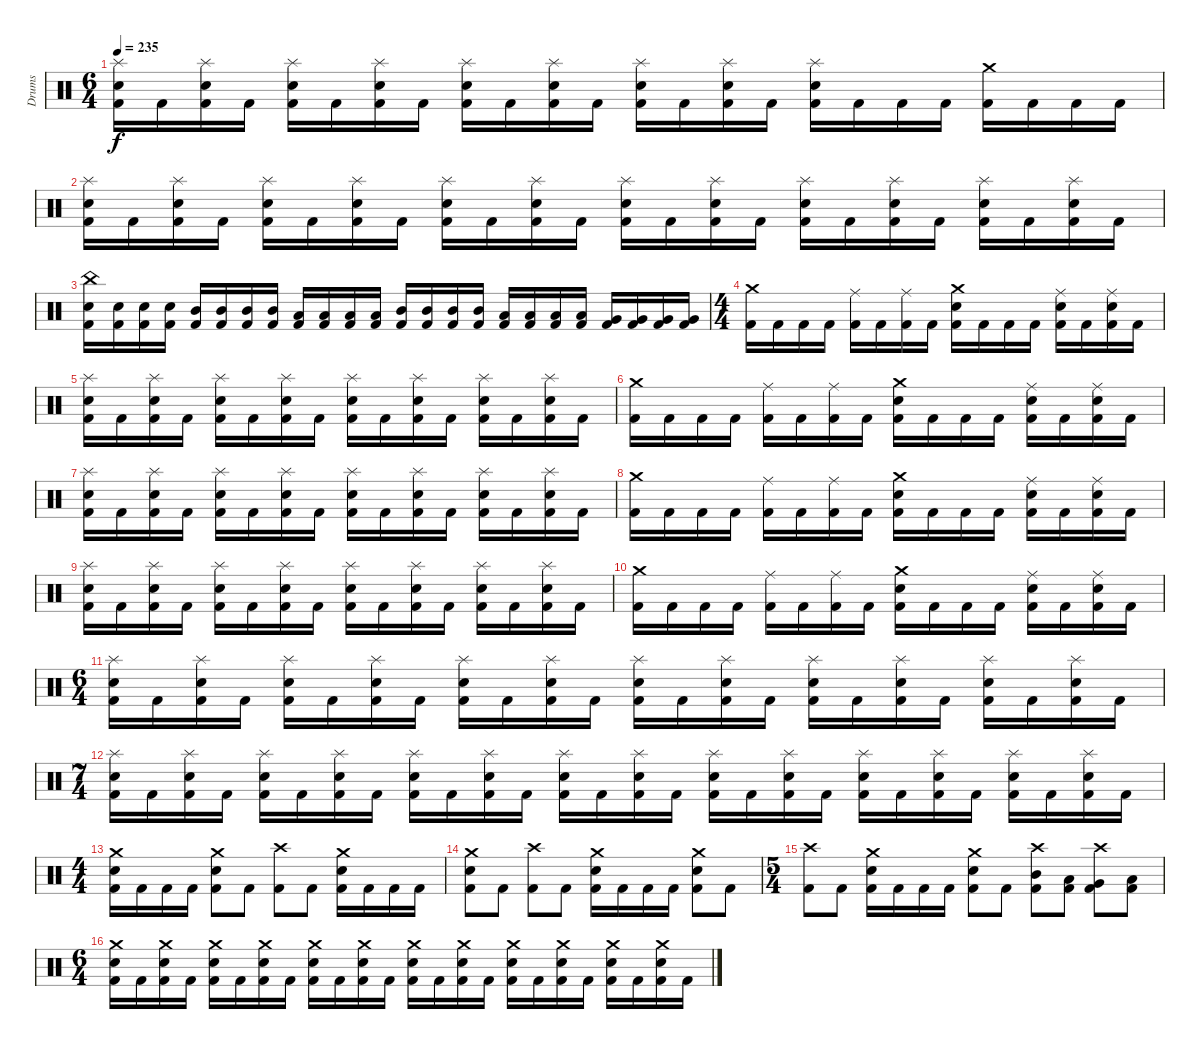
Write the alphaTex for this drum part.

\track ("Drums" "Drums") {instrument percussion}
\staff {score}
\articulation defaults
\ts (6 4)
\tempo 235
\clef neutral
\ks c
("Splash (hit)" "Electric Snare (hit)" "Kick (hit) 2").16{dy f} "Kick (hit) 2".16 ("Splash (hit)" "Electric Snare (hit)" "Kick (hit) 2").16 "Kick (hit) 2".16 ("Splash (hit)" "Electric Snare (hit)" "Kick (hit) 2").16 "Kick (hit) 2".16 ("Splash (hit)" "Electric Snare (hit)" "Kick (hit) 2").16 "Kick (hit) 2".16 ("Splash (hit)" "Electric Snare (hit)" "Kick (hit) 2").16 "Kick (hit) 2".16 ("Splash (hit)" "Electric Snare (hit)" "Kick (hit) 2").16 "Kick (hit) 2".16 ("Splash (hit)" "Electric Snare (hit)" "Kick (hit) 2").16 "Kick (hit) 2".16 ("Splash (hit)" "Electric Snare (hit)" "Kick (hit) 2").16 "Kick (hit) 2".16 ("Splash (hit)" "Electric Snare (hit)" "Kick (hit) 2").16 "Kick (hit) 2".16 "Kick (hit) 2".16 "Kick (hit) 2".16 ("Crash medium (hit)" "Kick (hit) 2").16 "Kick (hit) 2".16 "Kick (hit) 2".16 "Kick (hit) 2".16 |
("Splash (hit)" "Electric Snare (hit)" "Kick (hit) 2").16 "Kick (hit) 2".16 ("Splash (hit)" "Electric Snare (hit)" "Kick (hit) 2").16 "Kick (hit) 2".16 ("Splash (hit)" "Electric Snare (hit)" "Kick (hit) 2").16 "Kick (hit) 2".16 ("Splash (hit)" "Electric Snare (hit)" "Kick (hit) 2").16 "Kick (hit) 2".16 ("Splash (hit)" "Electric Snare (hit)" "Kick (hit) 2").16 "Kick (hit) 2".16 ("Splash (hit)" "Electric Snare (hit)" "Kick (hit) 2").16 "Kick (hit) 2".16 ("Splash (hit)" "Electric Snare (hit)" "Kick (hit) 2").16 "Kick (hit) 2".16 ("Splash (hit)" "Electric Snare (hit)" "Kick (hit) 2").16 "Kick (hit) 2".16 ("Splash (hit)" "Electric Snare (hit)" "Kick (hit) 2").16 "Kick (hit) 2".16 ("Splash (hit)" "Electric Snare (hit)" "Kick (hit) 2").16 "Kick (hit) 2".16 ("Splash (hit)" "Electric Snare (hit)" "Kick (hit) 2").16 "Kick (hit) 2".16 ("Splash (hit)" "Electric Snare (hit)" "Kick (hit) 2").16 "Kick (hit) 2".16 |
("China (hit)" "Electric Snare (hit)" "Kick (hit) 2").16 ("Electric Snare (hit)" "Kick (hit) 2").16 ("Electric Snare (hit)" "Kick (hit) 2").16 ("Electric Snare (hit)" "Kick (hit) 2").16 ("Mid Tom (hit)" "Kick (hit) 2").16 ("Mid Tom (hit)" "Kick (hit) 2").16 ("Mid Tom (hit)" "Kick (hit) 2").16 ("Mid Tom (hit)" "Kick (hit) 2").16 ("Low Tom (hit)" "Kick (hit) 2").16 ("Low Tom (hit)" "Kick (hit) 2").16 ("Low Tom (hit)" "Kick (hit) 2").16 ("Low Tom (hit)" "Kick (hit) 2").16 ("Mid Tom (hit)" "Kick (hit) 2").16 ("Mid Tom (hit)" "Kick (hit) 2").16 ("Mid Tom (hit)" "Kick (hit) 2").16 ("Mid Tom (hit)" "Kick (hit) 2").16 ("Low Tom (hit)" "Kick (hit) 2").16 ("Low Tom (hit)" "Kick (hit) 2").16 ("Low Tom (hit)" "Kick (hit) 2").16 ("Low Tom (hit)" "Kick (hit) 2").16 ("Very Low Tom (hit)" "Kick (hit) 2").16 ("Very Low Tom (hit)" "Kick (hit) 2").16 ("Very Low Tom (hit)" "Kick (hit) 2").16 ("Very Low Tom (hit)" "Kick (hit) 2").16 |
\ts (4 4)
("Crash medium (hit)" "Kick (hit) 2").16 "Kick (hit) 2".16 "Kick (hit) 2".16 "Kick (hit) 2".16 ("Ride (middle)" "Kick (hit) 2").16 "Kick (hit) 2".16 ("Ride (middle)" "Kick (hit) 2").16 "Kick (hit) 2".16 ("Crash medium (hit)" "Electric Snare (hit)" "Kick (hit) 2").16 "Kick (hit) 2".16 "Kick (hit) 2".16 "Kick (hit) 2".16 ("Ride (middle)" "Electric Snare (hit)" "Kick (hit) 2").16 "Kick (hit) 2".16 ("Ride (middle)" "Electric Snare (hit)" "Kick (hit) 2").16 "Kick (hit) 2".16 |
("Splash (hit)" "Electric Snare (hit)" "Kick (hit) 2").16 "Kick (hit) 2".16 ("Splash (hit)" "Electric Snare (hit)" "Kick (hit) 2").16 "Kick (hit) 2".16 ("Splash (hit)" "Electric Snare (hit)" "Kick (hit) 2").16 "Kick (hit) 2".16 ("Splash (hit)" "Electric Snare (hit)" "Kick (hit) 2").16 "Kick (hit) 2".16 ("Splash (hit)" "Electric Snare (hit)" "Kick (hit) 2").16 "Kick (hit) 2".16 ("Splash (hit)" "Electric Snare (hit)" "Kick (hit) 2").16 "Kick (hit) 2".16 ("Splash (hit)" "Electric Snare (hit)" "Kick (hit) 2").16 "Kick (hit) 2".16 ("Splash (hit)" "Electric Snare (hit)" "Kick (hit) 2").16 "Kick (hit) 2".16 |
("Crash medium (hit)" "Kick (hit) 2").16 "Kick (hit) 2".16 "Kick (hit) 2".16 "Kick (hit) 2".16 ("Ride (middle)" "Kick (hit) 2").16 "Kick (hit) 2".16 ("Ride (middle)" "Kick (hit) 2").16 "Kick (hit) 2".16 ("Crash medium (hit)" "Electric Snare (hit)" "Kick (hit) 2").16 "Kick (hit) 2".16 "Kick (hit) 2".16 "Kick (hit) 2".16 ("Ride (middle)" "Electric Snare (hit)" "Kick (hit) 2").16 "Kick (hit) 2".16 ("Ride (middle)" "Electric Snare (hit)" "Kick (hit) 2").16 "Kick (hit) 2".16 |
("Splash (hit)" "Electric Snare (hit)" "Kick (hit) 2").16 "Kick (hit) 2".16 ("Splash (hit)" "Electric Snare (hit)" "Kick (hit) 2").16 "Kick (hit) 2".16 ("Splash (hit)" "Electric Snare (hit)" "Kick (hit) 2").16 "Kick (hit) 2".16 ("Splash (hit)" "Electric Snare (hit)" "Kick (hit) 2").16 "Kick (hit) 2".16 ("Splash (hit)" "Electric Snare (hit)" "Kick (hit) 2").16 "Kick (hit) 2".16 ("Splash (hit)" "Electric Snare (hit)" "Kick (hit) 2").16 "Kick (hit) 2".16 ("Splash (hit)" "Electric Snare (hit)" "Kick (hit) 2").16 "Kick (hit) 2".16 ("Splash (hit)" "Electric Snare (hit)" "Kick (hit) 2").16 "Kick (hit) 2".16 |
("Crash medium (hit)" "Kick (hit) 2").16 "Kick (hit) 2".16 "Kick (hit) 2".16 "Kick (hit) 2".16 ("Ride (middle)" "Kick (hit) 2").16 "Kick (hit) 2".16 ("Ride (middle)" "Kick (hit) 2").16 "Kick (hit) 2".16 ("Crash medium (hit)" "Electric Snare (hit)" "Kick (hit) 2").16 "Kick (hit) 2".16 "Kick (hit) 2".16 "Kick (hit) 2".16 ("Ride (middle)" "Electric Snare (hit)" "Kick (hit) 2").16 "Kick (hit) 2".16 ("Ride (middle)" "Electric Snare (hit)" "Kick (hit) 2").16 "Kick (hit) 2".16 |
("Splash (hit)" "Electric Snare (hit)" "Kick (hit) 2").16 "Kick (hit) 2".16 ("Splash (hit)" "Electric Snare (hit)" "Kick (hit) 2").16 "Kick (hit) 2".16 ("Splash (hit)" "Electric Snare (hit)" "Kick (hit) 2").16 "Kick (hit) 2".16 ("Splash (hit)" "Electric Snare (hit)" "Kick (hit) 2").16 "Kick (hit) 2".16 ("Splash (hit)" "Electric Snare (hit)" "Kick (hit) 2").16 "Kick (hit) 2".16 ("Splash (hit)" "Electric Snare (hit)" "Kick (hit) 2").16 "Kick (hit) 2".16 ("Splash (hit)" "Electric Snare (hit)" "Kick (hit) 2").16 "Kick (hit) 2".16 ("Splash (hit)" "Electric Snare (hit)" "Kick (hit) 2").16 "Kick (hit) 2".16 |
("Crash medium (hit)" "Kick (hit) 2").16 "Kick (hit) 2".16 "Kick (hit) 2".16 "Kick (hit) 2".16 ("Ride (middle)" "Kick (hit) 2").16 "Kick (hit) 2".16 ("Ride (middle)" "Kick (hit) 2").16 "Kick (hit) 2".16 ("Crash medium (hit)" "Electric Snare (hit)" "Kick (hit) 2").16 "Kick (hit) 2".16 "Kick (hit) 2".16 "Kick (hit) 2".16 ("Ride (middle)" "Electric Snare (hit)" "Kick (hit) 2").16 "Kick (hit) 2".16 ("Ride (middle)" "Electric Snare (hit)" "Kick (hit) 2").16 "Kick (hit) 2".16 |
\ts (6 4)
("Splash (hit)" "Electric Snare (hit)" "Kick (hit) 2").16 "Kick (hit) 2".16 ("Splash (hit)" "Electric Snare (hit)" "Kick (hit) 2").16 "Kick (hit) 2".16 ("Splash (hit)" "Electric Snare (hit)" "Kick (hit) 2").16 "Kick (hit) 2".16 ("Splash (hit)" "Electric Snare (hit)" "Kick (hit) 2").16 "Kick (hit) 2".16 ("Splash (hit)" "Electric Snare (hit)" "Kick (hit) 2").16 "Kick (hit) 2".16 ("Splash (hit)" "Electric Snare (hit)" "Kick (hit) 2").16 "Kick (hit) 2".16 ("Splash (hit)" "Electric Snare (hit)" "Kick (hit) 2").16 "Kick (hit) 2".16 ("Splash (hit)" "Electric Snare (hit)" "Kick (hit) 2").16 "Kick (hit) 2".16 ("Splash (hit)" "Electric Snare (hit)" "Kick (hit) 2").16 "Kick (hit) 2".16 ("Splash (hit)" "Electric Snare (hit)" "Kick (hit) 2").16 "Kick (hit) 2".16 ("Splash (hit)" "Electric Snare (hit)" "Kick (hit) 2").16 "Kick (hit) 2".16 ("Splash (hit)" "Electric Snare (hit)" "Kick (hit) 2").16 "Kick (hit) 2".16 |
\ts (7 4)
("Splash (hit)" "Electric Snare (hit)" "Kick (hit) 2").16 "Kick (hit) 2".16 ("Splash (hit)" "Electric Snare (hit)" "Kick (hit) 2").16 "Kick (hit) 2".16 ("Splash (hit)" "Electric Snare (hit)" "Kick (hit) 2").16 "Kick (hit) 2".16 ("Splash (hit)" "Electric Snare (hit)" "Kick (hit) 2").16 "Kick (hit) 2".16 ("Splash (hit)" "Electric Snare (hit)" "Kick (hit) 2").16 "Kick (hit) 2".16 ("Splash (hit)" "Electric Snare (hit)" "Kick (hit) 2").16 "Kick (hit) 2".16 ("Splash (hit)" "Electric Snare (hit)" "Kick (hit) 2").16 "Kick (hit) 2".16 ("Splash (hit)" "Electric Snare (hit)" "Kick (hit) 2").16 "Kick (hit) 2".16 ("Splash (hit)" "Electric Snare (hit)" "Kick (hit) 2").16 "Kick (hit) 2".16 ("Splash (hit)" "Electric Snare (hit)" "Kick (hit) 2").16 "Kick (hit) 2".16 ("Splash (hit)" "Electric Snare (hit)" "Kick (hit) 2").16 "Kick (hit) 2".16 ("Splash (hit)" "Electric Snare (hit)" "Kick (hit) 2").16 "Kick (hit) 2".16 ("Splash (hit)" "Electric Snare (hit)" "Kick (hit) 2").16 "Kick (hit) 2".16 ("Splash (hit)" "Electric Snare (hit)" "Kick (hit) 2").16 "Kick (hit) 2".16 |
\ts (4 4)
("Crash medium (hit)" "Electric Snare (hit)" "Kick (hit) 2").16 "Kick (hit) 2".16 "Kick (hit) 2".16 "Kick (hit) 2".16 ("Crash medium (hit)" "Electric Snare (hit)" "Kick (hit) 2").8 "Kick (hit) 2".8 ("Crash high (hit)" "Kick (hit) 2").8 "Kick (hit) 2".8 ("Crash medium (hit)" "Electric Snare (hit)" "Kick (hit) 2").16 "Kick (hit) 2".16 "Kick (hit) 2".16 "Kick (hit) 2".16 |
("Crash medium (hit)" "Electric Snare (hit)" "Kick (hit) 2").8 "Kick (hit) 2".8 ("Crash high (hit)" "Kick (hit) 2").8 "Kick (hit) 2".8 ("Crash medium (hit)" "Electric Snare (hit)" "Kick (hit) 2").16 "Kick (hit) 2".16 "Kick (hit) 2".16 "Kick (hit) 2".16 ("Crash medium (hit)" "Electric Snare (hit)" "Kick (hit) 2").8 "Kick (hit) 2".8 |
\ts (5 4)
("Crash high (hit)" "Kick (hit) 2").8 "Kick (hit) 2".8 ("Crash medium (hit)" "Electric Snare (hit)" "Kick (hit) 2").16 "Kick (hit) 2".16 "Kick (hit) 2".16 "Kick (hit) 2".16 ("Crash medium (hit)" "Electric Snare (hit)" "Kick (hit) 2").8 "Kick (hit) 2".8 ("Crash high (hit)" "Mid Tom (hit)" "Kick (hit) 2").8 ("Low Tom (hit)" "Kick (hit) 2").8 ("Crash high (hit)" "Very Low Tom (hit)" "Kick (hit) 2").8 ("Low Floor Tom (hit)" "Kick (hit) 2").8 |
\ts (6 4)
("Crash medium (hit)" "Electric Snare (hit)" "Kick (hit) 2").16 "Kick (hit) 2".16 ("Crash medium (hit)" "Electric Snare (hit)" "Kick (hit) 2").16 "Kick (hit) 2".16 ("Crash medium (hit)" "Electric Snare (hit)" "Kick (hit) 2").16 "Kick (hit) 2".16 ("Crash medium (hit)" "Electric Snare (hit)" "Kick (hit) 2").16 "Kick (hit) 2".16 ("Crash medium (hit)" "Electric Snare (hit)" "Kick (hit) 2").16 "Kick (hit) 2".16 ("Crash medium (hit)" "Electric Snare (hit)" "Kick (hit) 2").16 "Kick (hit) 2".16 ("Crash medium (hit)" "Electric Snare (hit)" "Kick (hit) 2").16 "Kick (hit) 2".16 ("Crash medium (hit)" "Electric Snare (hit)" "Kick (hit) 2").16 "Kick (hit) 2".16 ("Crash medium (hit)" "Electric Snare (hit)" "Kick (hit) 2").16 "Kick (hit) 2".16 ("Crash medium (hit)" "Electric Snare (hit)" "Kick (hit) 2").16 "Kick (hit) 2".16 ("Crash medium (hit)" "Electric Snare (hit)" "Kick (hit) 2").16 "Kick (hit) 2".16 ("Crash medium (hit)" "Electric Snare (hit)" "Kick (hit) 2").16 "Kick (hit) 2".16
